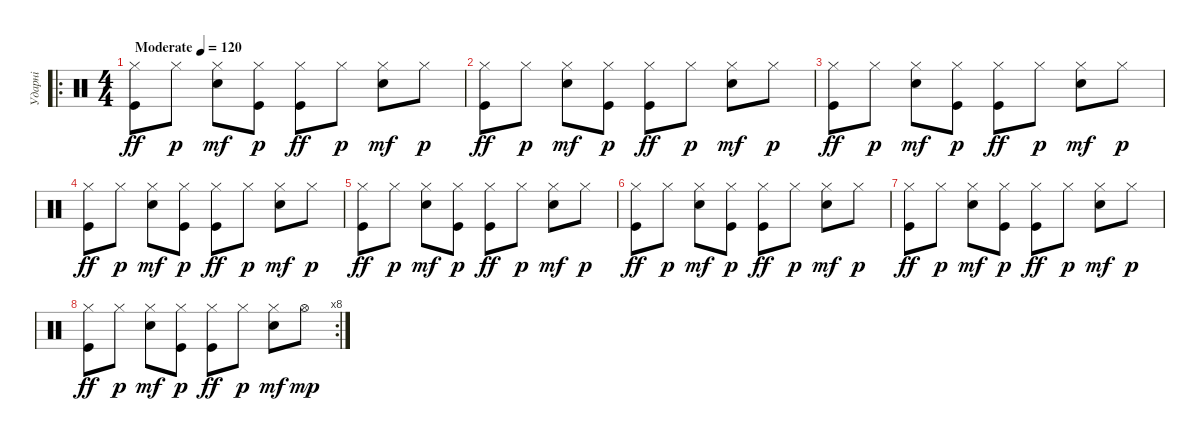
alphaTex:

\track ("Ударні" "Ударні") {instrument percussion}
\staff {score}
\articulation defaults
\ro
\ts (4 4)
\tempo (120 "Moderate")
\clef neutral
\ks c
("Hi-Hat (closed)" "Kick (hit)").8{dy ff} "Hi-Hat (closed)".8{dy p} ("Hi-Hat (closed)" "Snare (hit) 2").8{dy mf} ("Hi-Hat (closed)" "Kick (hit)").8{dy p} ("Hi-Hat (closed)" "Kick (hit)").8{dy ff} "Hi-Hat (closed)".8{dy p} ("Hi-Hat (closed)" "Snare (hit) 2").8{dy mf} "Hi-Hat (closed)".8{dy p} |
("Hi-Hat (closed)" "Kick (hit)").8{dy ff} "Hi-Hat (closed)".8{dy p} ("Hi-Hat (closed)" "Snare (hit) 2").8{dy mf} ("Hi-Hat (closed)" "Kick (hit)").8{dy p} ("Hi-Hat (closed)" "Kick (hit)").8{dy ff} "Hi-Hat (closed)".8{dy p} ("Hi-Hat (closed)" "Snare (hit) 2").8{dy mf} "Hi-Hat (closed)".8{dy p} |
("Hi-Hat (closed)" "Kick (hit)").8{dy ff} "Hi-Hat (closed)".8{dy p} ("Hi-Hat (closed)" "Snare (hit) 2").8{dy mf} ("Hi-Hat (closed)" "Kick (hit)").8{dy p} ("Hi-Hat (closed)" "Kick (hit)").8{dy ff} "Hi-Hat (closed)".8{dy p} ("Hi-Hat (closed)" "Snare (hit) 2").8{dy mf} "Hi-Hat (closed)".8{dy p} |
("Hi-Hat (closed)" "Kick (hit)").8{dy ff} "Hi-Hat (closed)".8{dy p} ("Hi-Hat (closed)" "Snare (hit) 2").8{dy mf} ("Hi-Hat (closed)" "Kick (hit)").8{dy p} ("Hi-Hat (closed)" "Kick (hit)").8{dy ff} "Hi-Hat (closed)".8{dy p} ("Hi-Hat (closed)" "Snare (hit) 2").8{dy mf} "Hi-Hat (closed)".8{dy p} |
("Hi-Hat (closed)" "Kick (hit)").8{dy ff} "Hi-Hat (closed)".8{dy p} ("Hi-Hat (closed)" "Snare (hit) 2").8{dy mf} ("Hi-Hat (closed)" "Kick (hit)").8{dy p} ("Hi-Hat (closed)" "Kick (hit)").8{dy ff} "Hi-Hat (closed)".8{dy p} ("Hi-Hat (closed)" "Snare (hit) 2").8{dy mf} "Hi-Hat (closed)".8{dy p} |
("Hi-Hat (closed)" "Kick (hit)").8{dy ff} "Hi-Hat (closed)".8{dy p} ("Hi-Hat (closed)" "Snare (hit) 2").8{dy mf} ("Hi-Hat (closed)" "Kick (hit)").8{dy p} ("Hi-Hat (closed)" "Kick (hit)").8{dy ff} "Hi-Hat (closed)".8{dy p} ("Hi-Hat (closed)" "Snare (hit) 2").8{dy mf} "Hi-Hat (closed)".8{dy p} |
("Hi-Hat (closed)" "Kick (hit)").8{dy ff} "Hi-Hat (closed)".8{dy p} ("Hi-Hat (closed)" "Snare (hit) 2").8{dy mf} ("Hi-Hat (closed)" "Kick (hit)").8{dy p} ("Hi-Hat (closed)" "Kick (hit)").8{dy ff} "Hi-Hat (closed)".8{dy p} ("Hi-Hat (closed)" "Snare (hit) 2").8{dy mf} "Hi-Hat (closed)".8{dy p} |
\rc 8
("Hi-Hat (closed)" "Kick (hit)").8{dy ff} "Hi-Hat (closed)".8{dy p} ("Hi-Hat (closed)" "Snare (hit) 2").8{dy mf} ("Hi-Hat (closed)" "Kick (hit)").8{dy p} ("Hi-Hat (closed)" "Kick (hit)").8{dy ff} "Hi-Hat (closed)".8{dy p} ("Hi-Hat (closed)" "Snare (hit) 2").8{dy mf} "Hi-Hat (open)".8{dy mp}
